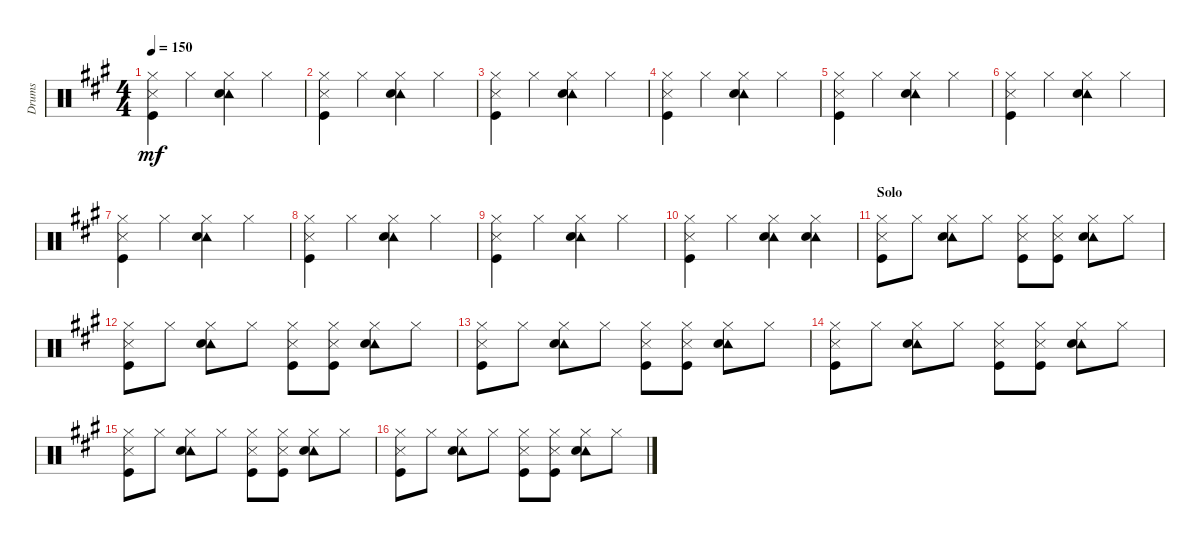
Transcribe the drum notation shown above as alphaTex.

\track ("Drums" "Drums") {instrument percussion}
\staff {score}
\articulation defaults
\ts (4 4)
\tempo 150
\clef neutral
\ks a
("Hi-Hat (closed)" "Metronome (hit)" "Kick (hit)").4{dy mf} "Hi-Hat (closed)".4 ("Tambourine (hit)" "Hi-Hat (closed)" "Electric Snare (hit)").4 "Hi-Hat (closed)".4 |
("Hi-Hat (closed)" "Metronome (hit)" "Kick (hit)").4 "Hi-Hat (closed)".4 ("Tambourine (hit)" "Hi-Hat (closed)" "Electric Snare (hit)").4 "Hi-Hat (closed)".4 |
("Hi-Hat (closed)" "Metronome (hit)" "Kick (hit)").4 "Hi-Hat (closed)".4 ("Tambourine (hit)" "Hi-Hat (closed)" "Electric Snare (hit)").4 "Hi-Hat (closed)".4 |
("Hi-Hat (closed)" "Metronome (hit)" "Kick (hit)").4 "Hi-Hat (closed)".4 ("Tambourine (hit)" "Hi-Hat (closed)" "Electric Snare (hit)").4 "Hi-Hat (closed)".4 |
("Hi-Hat (closed)" "Metronome (hit)" "Kick (hit)").4 "Hi-Hat (closed)".4 ("Tambourine (hit)" "Hi-Hat (closed)" "Electric Snare (hit)").4 "Hi-Hat (closed)".4 |
("Hi-Hat (closed)" "Metronome (hit)" "Kick (hit)").4 "Hi-Hat (closed)".4 ("Tambourine (hit)" "Hi-Hat (closed)" "Electric Snare (hit)").4 "Hi-Hat (closed)".4 |
("Hi-Hat (closed)" "Metronome (hit)" "Kick (hit)").4 "Hi-Hat (closed)".4 ("Tambourine (hit)" "Hi-Hat (closed)" "Electric Snare (hit)").4 "Hi-Hat (closed)".4 |
("Hi-Hat (closed)" "Metronome (hit)" "Kick (hit)").4 "Hi-Hat (closed)".4 ("Tambourine (hit)" "Hi-Hat (closed)" "Electric Snare (hit)").4 "Hi-Hat (closed)".4 |
("Hi-Hat (closed)" "Metronome (hit)" "Kick (hit)").4 "Hi-Hat (closed)".4 ("Tambourine (hit)" "Hi-Hat (closed)" "Electric Snare (hit)").4 "Hi-Hat (closed)".4 |
("Hi-Hat (closed)" "Metronome (hit)" "Kick (hit)").4 "Hi-Hat (closed)".4 ("Tambourine (hit)" "Hi-Hat (closed)" "Electric Snare (hit)").4 ("Tambourine (hit)" "Hi-Hat (closed)" "Electric Snare (hit)").4 |
\section ("" "Solo")
("Hi-Hat (closed)" "Metronome (hit)" "Kick (hit)").8 "Hi-Hat (closed)".8 ("Tambourine (hit)" "Hi-Hat (closed)" "Electric Snare (hit)").8 "Hi-Hat (closed)".8 ("Hi-Hat (closed)" "Metronome (hit)" "Kick (hit)").8 ("Hi-Hat (closed)" "Metronome (hit)" "Kick (hit)").8 ("Tambourine (hit)" "Hi-Hat (closed)" "Electric Snare (hit)").8 "Hi-Hat (closed)".8 |
("Hi-Hat (closed)" "Metronome (hit)" "Kick (hit)").8 "Hi-Hat (closed)".8 ("Tambourine (hit)" "Hi-Hat (closed)" "Electric Snare (hit)").8 "Hi-Hat (closed)".8 ("Hi-Hat (closed)" "Metronome (hit)" "Kick (hit)").8 ("Hi-Hat (closed)" "Metronome (hit)" "Kick (hit)").8 ("Tambourine (hit)" "Hi-Hat (closed)" "Electric Snare (hit)").8 "Hi-Hat (closed)".8 |
("Hi-Hat (closed)" "Metronome (hit)" "Kick (hit)").8 "Hi-Hat (closed)".8 ("Tambourine (hit)" "Hi-Hat (closed)" "Electric Snare (hit)").8 "Hi-Hat (closed)".8 ("Hi-Hat (closed)" "Metronome (hit)" "Kick (hit)").8 ("Hi-Hat (closed)" "Metronome (hit)" "Kick (hit)").8 ("Tambourine (hit)" "Hi-Hat (closed)" "Electric Snare (hit)").8 "Hi-Hat (closed)".8 |
("Hi-Hat (closed)" "Metronome (hit)" "Kick (hit)").8 "Hi-Hat (closed)".8 ("Tambourine (hit)" "Hi-Hat (closed)" "Electric Snare (hit)").8 "Hi-Hat (closed)".8 ("Hi-Hat (closed)" "Metronome (hit)" "Kick (hit)").8 ("Hi-Hat (closed)" "Metronome (hit)" "Kick (hit)").8 ("Tambourine (hit)" "Hi-Hat (closed)" "Electric Snare (hit)").8 "Hi-Hat (closed)".8 |
("Hi-Hat (closed)" "Metronome (hit)" "Kick (hit)").8 "Hi-Hat (closed)".8 ("Tambourine (hit)" "Hi-Hat (closed)" "Electric Snare (hit)").8 "Hi-Hat (closed)".8 ("Hi-Hat (closed)" "Metronome (hit)" "Kick (hit)").8 ("Hi-Hat (closed)" "Metronome (hit)" "Kick (hit)").8 ("Tambourine (hit)" "Hi-Hat (closed)" "Electric Snare (hit)").8 "Hi-Hat (closed)".8 |
("Hi-Hat (closed)" "Metronome (hit)" "Kick (hit)").8 "Hi-Hat (closed)".8 ("Tambourine (hit)" "Hi-Hat (closed)" "Electric Snare (hit)").8 "Hi-Hat (closed)".8 ("Hi-Hat (closed)" "Metronome (hit)" "Kick (hit)").8 ("Hi-Hat (closed)" "Metronome (hit)" "Kick (hit)").8 ("Tambourine (hit)" "Hi-Hat (closed)" "Electric Snare (hit)").8 "Hi-Hat (closed)".8
